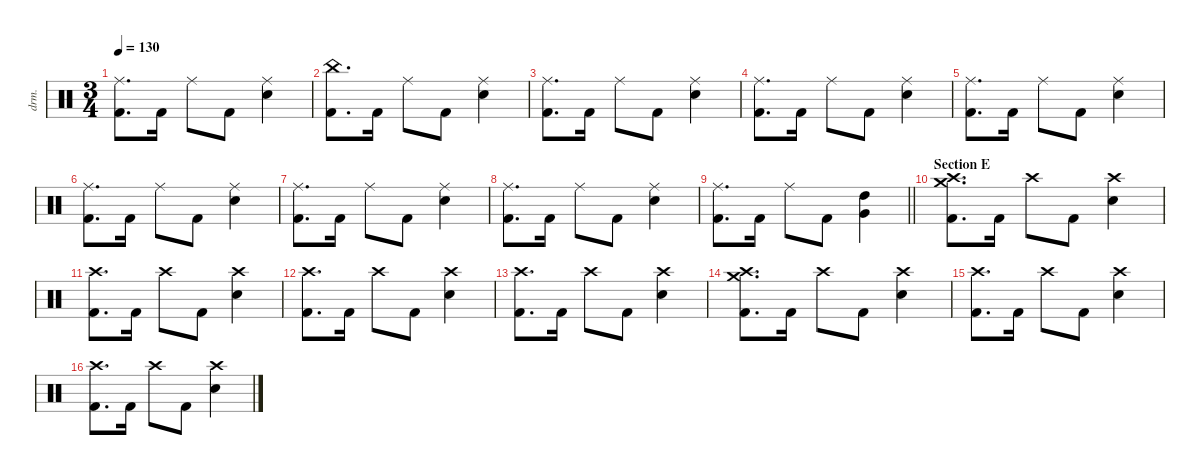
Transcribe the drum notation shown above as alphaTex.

\defaultSystemsLayout 4
\hideDynamics
\bracketExtendMode nobrackets
\otherSystemsTrackNameOrientation horizontal
\track ("Percussion" "drm.") {instrument percussion}
\staff {score}
\articulation defaults
\ts (3 4)
\tempo 130
\clef neutral
\ks c
("Ride (middle)" "Kick (hit) 2").8{d dy f beam Down} "Kick (hit) 2".16{beam Down} "Ride (middle)".8{beam Down} "Kick (hit) 2".8{beam Down} ("Ride (middle)" "Snare (hit) 2").4{beam Down} |
("China (hit)" "Kick (hit) 2").8{d beam Down} "Kick (hit) 2".16{beam Down} "Ride (middle)".8{beam Down} "Kick (hit) 2".8{beam Down} ("Ride (middle)" "Snare (hit) 2").4{beam Down} |
("Ride (middle)" "Kick (hit) 2").8{d beam Down} "Kick (hit) 2".16{beam Down} "Ride (middle)".8{beam Down} "Kick (hit) 2".8{beam Down} ("Ride (middle)" "Snare (hit) 2").4{beam Down} |
("Ride (middle)" "Kick (hit) 2").8{d beam Down} "Kick (hit) 2".16{beam Down} "Ride (middle)".8{beam Down} "Kick (hit) 2".8{beam Down} ("Ride (middle)" "Snare (hit) 2").4{beam Down} |
("Ride (middle)" "Kick (hit) 2").8{d beam Down} "Kick (hit) 2".16{beam Down} "Ride (middle)".8{beam Down} "Kick (hit) 2".8{beam Down} ("Ride (middle)" "Snare (hit) 2").4{beam Down} |
("Ride (middle)" "Kick (hit) 2").8{d beam Down} "Kick (hit) 2".16{beam Down} "Ride (middle)".8{beam Down} "Kick (hit) 2".8{beam Down} ("Ride (middle)" "Snare (hit) 2").4{beam Down} |
("Ride (middle)" "Kick (hit) 2").8{d beam Down} "Kick (hit) 2".16{beam Down} "Ride (middle)".8{beam Down} "Kick (hit) 2".8{beam Down} ("Ride (middle)" "Snare (hit) 2").4{beam Down} |
("Ride (middle)" "Kick (hit) 2").8{d beam Down} "Kick (hit) 2".16{beam Down} "Ride (middle)".8{beam Down} "Kick (hit) 2".8{beam Down} ("Ride (middle)" "Snare (hit) 2").4{beam Down} |
\barLineRight lightlight
("Ride (middle)" "Kick (hit) 2").8{d beam Down} "Kick (hit) 2".16{beam Down} "Ride (middle)".8{beam Down} "Kick (hit) 2".8{beam Down} ("High Tom (hit)" "Very Low Tom (hit)").4{beam Down} |
\section ("" "Section E")
("Crash medium (hit)" "Crash high (hit)" "Kick (hit) 2").8{d beam Down} "Kick (hit) 2".16{beam Down} "Crash high (hit)".8{beam Down} "Kick (hit) 2".8{beam Down} ("Crash high (hit)" "Snare (hit) 2").4{beam Down} |
("Crash high (hit)" "Kick (hit) 2").8{d beam Down} "Kick (hit) 2".16{beam Down} "Crash high (hit)".8{beam Down} "Kick (hit) 2".8{beam Down} ("Crash high (hit)" "Snare (hit) 2").4{beam Down} |
("Crash high (hit)" "Kick (hit) 2").8{d beam Down} "Kick (hit) 2".16{beam Down} "Crash high (hit)".8{beam Down} "Kick (hit) 2".8{beam Down} ("Crash high (hit)" "Snare (hit) 2").4{beam Down} |
("Crash high (hit)" "Kick (hit) 2").8{d beam Down} "Kick (hit) 2".16{beam Down} "Crash high (hit)".8{beam Down} "Kick (hit) 2".8{beam Down} ("Crash high (hit)" "Snare (hit) 2").4{beam Down} |
("Crash high (hit)" "Crash medium (hit)" "Kick (hit) 2").8{d beam Down} "Kick (hit) 2".16{beam Down} "Crash high (hit)".8{beam Down} "Kick (hit) 2".8{beam Down} ("Crash high (hit)" "Snare (hit) 2").4{beam Down} |
("Crash high (hit)" "Kick (hit) 2").8{d beam Down} "Kick (hit) 2".16{beam Down} "Crash high (hit)".8{beam Down} "Kick (hit) 2".8{beam Down} ("Crash high (hit)" "Snare (hit) 2").4{beam Down} |
("Crash high (hit)" "Kick (hit) 2").8{d beam Down} "Kick (hit) 2".16{beam Down} "Crash high (hit)".8{beam Down} "Kick (hit) 2".8{beam Down} ("Crash high (hit)" "Snare (hit) 2").4{beam Down}
